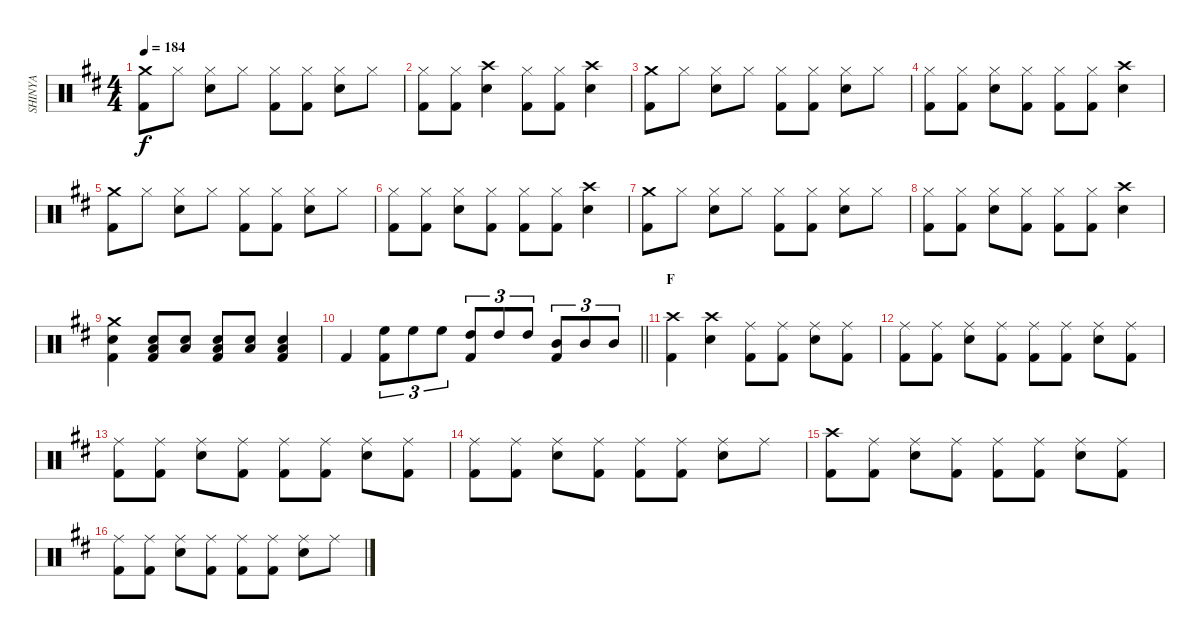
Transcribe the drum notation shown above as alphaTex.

\track ("SHINYA" "SHINYA") {instrument percussion}
\staff {score}
\articulation defaults
\ts (4 4)
\tempo 184
\clef neutral
\ks bminor
("Crash medium (hit)" "Kick (hit) 2").8{dy f} "Hi-Hat (closed)".8 ("Hi-Hat (closed)" "Snare (hit) 2").8 "Hi-Hat (closed)".8 ("Hi-Hat (closed)" "Kick (hit) 2").8 ("Hi-Hat (closed)" "Kick (hit) 2").8 ("Hi-Hat (closed)" "Snare (hit) 2").8 "Hi-Hat (closed)".8 |
("Hi-Hat (closed)" "Kick (hit) 2").8 ("Hi-Hat (closed)" "Kick (hit) 2").8 ("Crash high (hit)" "Snare (hit) 2").4 ("Hi-Hat (closed)" "Kick (hit) 2").8 ("Hi-Hat (closed)" "Kick (hit) 2").8 ("Crash high (hit)" "Snare (hit) 2").4 |
("Crash medium (hit)" "Kick (hit) 2").8 "Hi-Hat (closed)".8 ("Hi-Hat (closed)" "Snare (hit) 2").8 "Hi-Hat (closed)".8 ("Hi-Hat (closed)" "Kick (hit) 2").8 ("Hi-Hat (closed)" "Kick (hit) 2").8 ("Hi-Hat (closed)" "Snare (hit) 2").8 "Hi-Hat (closed)".8 |
("Hi-Hat (closed)" "Kick (hit) 2").8 ("Hi-Hat (closed)" "Kick (hit) 2").8 ("Hi-Hat (closed)" "Snare (hit) 2").8 ("Hi-Hat (closed)" "Kick (hit) 2").8 ("Hi-Hat (closed)" "Kick (hit) 2").8 ("Hi-Hat (closed)" "Kick (hit) 2").8 ("Crash high (hit)" "Snare (hit) 2").4 |
("Crash medium (hit)" "Kick (hit) 2").8 "Hi-Hat (closed)".8 ("Hi-Hat (closed)" "Snare (hit) 2").8 "Hi-Hat (closed)".8 ("Hi-Hat (closed)" "Kick (hit) 2").8 ("Hi-Hat (closed)" "Kick (hit) 2").8 ("Hi-Hat (closed)" "Snare (hit) 2").8 "Hi-Hat (closed)".8 |
("Hi-Hat (closed)" "Kick (hit) 2").8 ("Hi-Hat (closed)" "Kick (hit) 2").8 ("Hi-Hat (closed)" "Snare (hit) 2").8 ("Hi-Hat (closed)" "Kick (hit) 2").8 ("Hi-Hat (closed)" "Kick (hit) 2").8 ("Hi-Hat (closed)" "Kick (hit) 2").8 ("Crash high (hit)" "Snare (hit) 2").4 |
("Crash medium (hit)" "Kick (hit) 2").8 "Hi-Hat (closed)".8 ("Hi-Hat (closed)" "Snare (hit) 2").8 "Hi-Hat (closed)".8 ("Hi-Hat (closed)" "Kick (hit) 2").8 ("Hi-Hat (closed)" "Kick (hit) 2").8 ("Hi-Hat (closed)" "Snare (hit) 2").8 "Hi-Hat (closed)".8 |
("Hi-Hat (closed)" "Kick (hit) 2").8 ("Hi-Hat (closed)" "Kick (hit) 2").8 ("Hi-Hat (closed)" "Snare (hit) 2").8 ("Hi-Hat (closed)" "Kick (hit) 2").8 ("Hi-Hat (closed)" "Kick (hit) 2").8 ("Hi-Hat (closed)" "Kick (hit) 2").8 ("Crash high (hit)" "Snare (hit) 2").4 |
("Crash medium (hit)" "Snare (hit) 2" "Kick (hit) 2").4 ("Snare (hit) 2" "Kick (hit) 2" "Low Tom (hit)").8 ("Snare (hit) 2" "Low Tom (hit)").8 ("Snare (hit) 2" "Kick (hit) 2" "Low Tom (hit)").8 ("Snare (hit) 2" "Low Tom (hit)").8 ("Snare (hit) 2" "Kick (hit) 2" "Low Tom (hit)").4 |
\barLineRight lightlight "Kick (hit) 2".4
("High Floor Tom (hit)" "Kick (hit) 2").8{tu (3 2)} "High Floor Tom (hit)".8{tu (3 2)} "High Floor Tom (hit)".8{tu (3 2)} ("High Tom (hit)" "Kick (hit) 2").8{tu (3 2)} "High Tom (hit)".8{tu (3 2)} "High Tom (hit)".8{tu (3 2)} ("Mid Tom (hit)" "Kick (hit) 2").8{tu (3 2)} "Mid Tom (hit)".8{tu (3 2)} "Mid Tom (hit)".8{tu (3 2)} |
\section ("" "F")
("Crash high (hit)" "Kick (hit) 2").4 ("Crash high (hit)" "Snare (hit) 2").4 ("Ride (middle)" "Kick (hit) 2").8 ("Ride (middle)" "Kick (hit) 2").8 ("Ride (middle)" "Snare (hit) 2").8 ("Ride (middle)" "Kick (hit) 2").8 |
("Ride (middle)" "Kick (hit) 2").8 ("Ride (middle)" "Kick (hit) 2").8 ("Ride (middle)" "Snare (hit) 2").8 ("Ride (middle)" "Kick (hit) 2").8 ("Ride (middle)" "Kick (hit) 2").8 ("Ride (middle)" "Kick (hit) 2").8 ("Ride (middle)" "Snare (hit) 2").8 ("Ride (middle)" "Kick (hit) 2").8 |
("Ride (middle)" "Kick (hit) 2").8 ("Ride (middle)" "Kick (hit) 2").8 ("Ride (middle)" "Snare (hit) 2").8 ("Ride (middle)" "Kick (hit) 2").8 ("Ride (middle)" "Kick (hit) 2").8 ("Ride (middle)" "Kick (hit) 2").8 ("Ride (middle)" "Snare (hit) 2").8 ("Ride (middle)" "Kick (hit) 2").8 |
("Ride (middle)" "Kick (hit) 2").8 ("Ride (middle)" "Kick (hit) 2").8 ("Ride (middle)" "Snare (hit) 2").8 ("Ride (middle)" "Kick (hit) 2").8 ("Ride (middle)" "Kick (hit) 2").8 ("Ride (middle)" "Kick (hit) 2").8 ("Ride (middle)" "Snare (hit) 2").8 "Ride (middle)".8 |
("Crash high (hit)" "Kick (hit) 2").8 ("Ride (middle)" "Kick (hit) 2").8 ("Ride (middle)" "Snare (hit) 2").8 ("Ride (middle)" "Kick (hit) 2").8 ("Ride (middle)" "Kick (hit) 2").8 ("Ride (middle)" "Kick (hit) 2").8 ("Ride (middle)" "Snare (hit) 2").8 ("Ride (middle)" "Kick (hit) 2").8 |
("Ride (middle)" "Kick (hit) 2").8 ("Ride (middle)" "Kick (hit) 2").8 ("Ride (middle)" "Snare (hit) 2").8 ("Ride (middle)" "Kick (hit) 2").8 ("Ride (middle)" "Kick (hit) 2").8 ("Ride (middle)" "Kick (hit) 2").8 ("Ride (middle)" "Snare (hit) 2").8 "Ride (middle)".8
